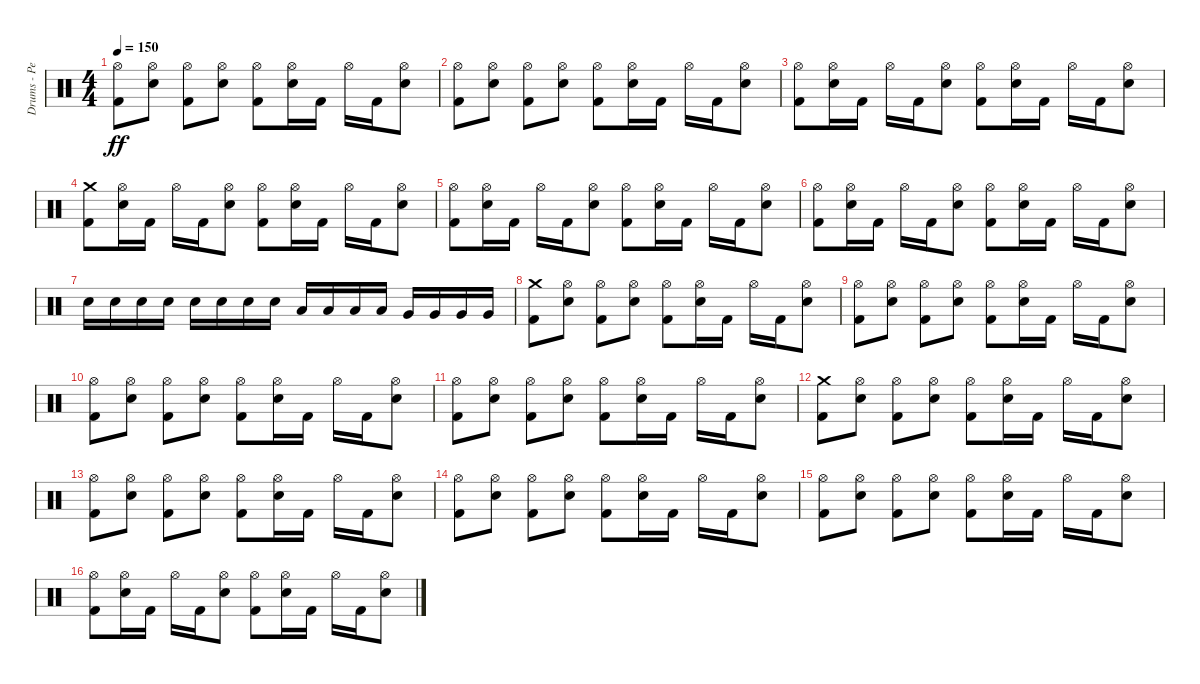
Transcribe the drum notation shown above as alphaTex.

\track ("Drums - Pete Finestone" "Drums - Pe") {instrument percussion}
\staff {score}
\articulation defaults
\ts (4 4)
\tempo 150
\clef neutral
\ks c
("Kick (hit) 2" "Hi-Hat (open)").8{dy ff} ("Electric Snare (hit)" "Hi-Hat (open)").8 ("Kick (hit) 2" "Hi-Hat (open)").8 ("Electric Snare (hit)" "Hi-Hat (open)").8 ("Kick (hit) 2" "Hi-Hat (open)").8 ("Electric Snare (hit)" "Hi-Hat (open)").16 "Kick (hit) 2".16 "Hi-Hat (open)".16 "Kick (hit) 2".16 ("Electric Snare (hit)" "Hi-Hat (open)").8 |
("Kick (hit) 2" "Hi-Hat (open)").8 ("Electric Snare (hit)" "Hi-Hat (open)").8 ("Kick (hit) 2" "Hi-Hat (open)").8 ("Electric Snare (hit)" "Hi-Hat (open)").8 ("Kick (hit) 2" "Hi-Hat (open)").8 ("Electric Snare (hit)" "Hi-Hat (open)").16 "Kick (hit) 2".16 "Hi-Hat (open)".16 "Kick (hit) 2".16 ("Electric Snare (hit)" "Hi-Hat (open)").8 |
("Kick (hit) 2" "Hi-Hat (open)").8 ("Electric Snare (hit)" "Hi-Hat (open)").16 "Kick (hit) 2".16 "Hi-Hat (open)".16 "Kick (hit) 2".16 ("Electric Snare (hit)" "Hi-Hat (open)").8 ("Kick (hit) 2" "Hi-Hat (open)").8 ("Electric Snare (hit)" "Hi-Hat (open)").16 "Kick (hit) 2".16 "Hi-Hat (open)".16 "Kick (hit) 2".16 ("Electric Snare (hit)" "Hi-Hat (open)").8 |
("Kick (hit) 2" "Crash medium (hit)").8 ("Electric Snare (hit)" "Hi-Hat (open)").16 "Kick (hit) 2".16 "Hi-Hat (open)".16 "Kick (hit) 2".16 ("Electric Snare (hit)" "Hi-Hat (open)").8 ("Kick (hit) 2" "Hi-Hat (open)").8 ("Electric Snare (hit)" "Hi-Hat (open)").16 "Kick (hit) 2".16 "Hi-Hat (open)".16 "Kick (hit) 2".16 ("Electric Snare (hit)" "Hi-Hat (open)").8 |
("Kick (hit) 2" "Hi-Hat (open)").8 ("Electric Snare (hit)" "Hi-Hat (open)").16 "Kick (hit) 2".16 "Hi-Hat (open)".16 "Kick (hit) 2".16 ("Electric Snare (hit)" "Hi-Hat (open)").8 ("Kick (hit) 2" "Hi-Hat (open)").8 ("Electric Snare (hit)" "Hi-Hat (open)").16 "Kick (hit) 2".16 "Hi-Hat (open)".16 "Kick (hit) 2".16 ("Electric Snare (hit)" "Hi-Hat (open)").8 |
("Kick (hit) 2" "Hi-Hat (open)").8 ("Electric Snare (hit)" "Hi-Hat (open)").16 "Kick (hit) 2".16 "Hi-Hat (open)".16 "Kick (hit) 2".16 ("Electric Snare (hit)" "Hi-Hat (open)").8 ("Kick (hit) 2" "Hi-Hat (open)").8 ("Electric Snare (hit)" "Hi-Hat (open)").16 "Kick (hit) 2".16 "Hi-Hat (open)".16 "Kick (hit) 2".16 ("Electric Snare (hit)" "Hi-Hat (open)").8 |
"Electric Snare (hit)".16 "Electric Snare (hit)".16 "Electric Snare (hit)".16 "Electric Snare (hit)".16 "Electric Snare (hit)".16 "Electric Snare (hit)".16 "Electric Snare (hit)".16 "Electric Snare (hit)".16 "Low Tom (hit)".16 "Low Tom (hit)".16 "Low Tom (hit)".16 "Low Tom (hit)".16 "Very Low Tom (hit)".16 "Very Low Tom (hit)".16 "Very Low Tom (hit)".16 "Very Low Tom (hit)".16 |
("Kick (hit) 2" "Crash medium (hit)").8 ("Electric Snare (hit)" "Hi-Hat (open)").8 ("Kick (hit) 2" "Hi-Hat (open)").8 ("Electric Snare (hit)" "Hi-Hat (open)").8 ("Kick (hit) 2" "Hi-Hat (open)").8 ("Electric Snare (hit)" "Hi-Hat (open)").16 "Kick (hit) 2".16 "Hi-Hat (open)".16 "Kick (hit) 2".16 ("Electric Snare (hit)" "Hi-Hat (open)").8 |
("Kick (hit) 2" "Hi-Hat (open)").8 ("Electric Snare (hit)" "Hi-Hat (open)").8 ("Kick (hit) 2" "Hi-Hat (open)").8 ("Electric Snare (hit)" "Hi-Hat (open)").8 ("Kick (hit) 2" "Hi-Hat (open)").8 ("Electric Snare (hit)" "Hi-Hat (open)").16 "Kick (hit) 2".16 "Hi-Hat (open)".16 "Kick (hit) 2".16 ("Electric Snare (hit)" "Hi-Hat (open)").8 |
("Kick (hit) 2" "Hi-Hat (open)").8 ("Electric Snare (hit)" "Hi-Hat (open)").8 ("Kick (hit) 2" "Hi-Hat (open)").8 ("Electric Snare (hit)" "Hi-Hat (open)").8 ("Kick (hit) 2" "Hi-Hat (open)").8 ("Electric Snare (hit)" "Hi-Hat (open)").16 "Kick (hit) 2".16 "Hi-Hat (open)".16 "Kick (hit) 2".16 ("Electric Snare (hit)" "Hi-Hat (open)").8 |
("Kick (hit) 2" "Hi-Hat (open)").8 ("Electric Snare (hit)" "Hi-Hat (open)").8 ("Kick (hit) 2" "Hi-Hat (open)").8 ("Electric Snare (hit)" "Hi-Hat (open)").8 ("Kick (hit) 2" "Hi-Hat (open)").8 ("Electric Snare (hit)" "Hi-Hat (open)").16 "Kick (hit) 2".16 "Hi-Hat (open)".16 "Kick (hit) 2".16 ("Electric Snare (hit)" "Hi-Hat (open)").8 |
("Kick (hit) 2" "Crash medium (hit)").8 ("Electric Snare (hit)" "Hi-Hat (open)").8 ("Kick (hit) 2" "Hi-Hat (open)").8 ("Electric Snare (hit)" "Hi-Hat (open)").8 ("Kick (hit) 2" "Hi-Hat (open)").8 ("Electric Snare (hit)" "Hi-Hat (open)").16 "Kick (hit) 2".16 "Hi-Hat (open)".16 "Kick (hit) 2".16 ("Electric Snare (hit)" "Hi-Hat (open)").8 |
("Kick (hit) 2" "Hi-Hat (open)").8 ("Electric Snare (hit)" "Hi-Hat (open)").8 ("Kick (hit) 2" "Hi-Hat (open)").8 ("Electric Snare (hit)" "Hi-Hat (open)").8 ("Kick (hit) 2" "Hi-Hat (open)").8 ("Electric Snare (hit)" "Hi-Hat (open)").16 "Kick (hit) 2".16 "Hi-Hat (open)".16 "Kick (hit) 2".16 ("Electric Snare (hit)" "Hi-Hat (open)").8 |
("Kick (hit) 2" "Hi-Hat (open)").8 ("Electric Snare (hit)" "Hi-Hat (open)").8 ("Kick (hit) 2" "Hi-Hat (open)").8 ("Electric Snare (hit)" "Hi-Hat (open)").8 ("Kick (hit) 2" "Hi-Hat (open)").8 ("Electric Snare (hit)" "Hi-Hat (open)").16 "Kick (hit) 2".16 "Hi-Hat (open)".16 "Kick (hit) 2".16 ("Electric Snare (hit)" "Hi-Hat (open)").8 |
("Kick (hit) 2" "Hi-Hat (open)").8 ("Electric Snare (hit)" "Hi-Hat (open)").8 ("Kick (hit) 2" "Hi-Hat (open)").8 ("Electric Snare (hit)" "Hi-Hat (open)").8 ("Hi-Hat (open)" "Kick (hit) 2").8 ("Hi-Hat (open)" "Electric Snare (hit)").16 "Kick (hit) 2".16 "Hi-Hat (open)".16 "Kick (hit) 2".16 ("Hi-Hat (open)" "Electric Snare (hit)").8 |
("Hi-Hat (open)" "Kick (hit) 2").8 ("Hi-Hat (open)" "Electric Snare (hit)").16 "Kick (hit) 2".16 "Hi-Hat (open)".16 "Kick (hit) 2".16 ("Hi-Hat (open)" "Electric Snare (hit)").8 ("Hi-Hat (open)" "Kick (hit) 2").8 ("Hi-Hat (open)" "Electric Snare (hit)").16 "Kick (hit) 2".16 "Hi-Hat (open)".16 "Kick (hit) 2".16 ("Hi-Hat (open)" "Electric Snare (hit)").8
